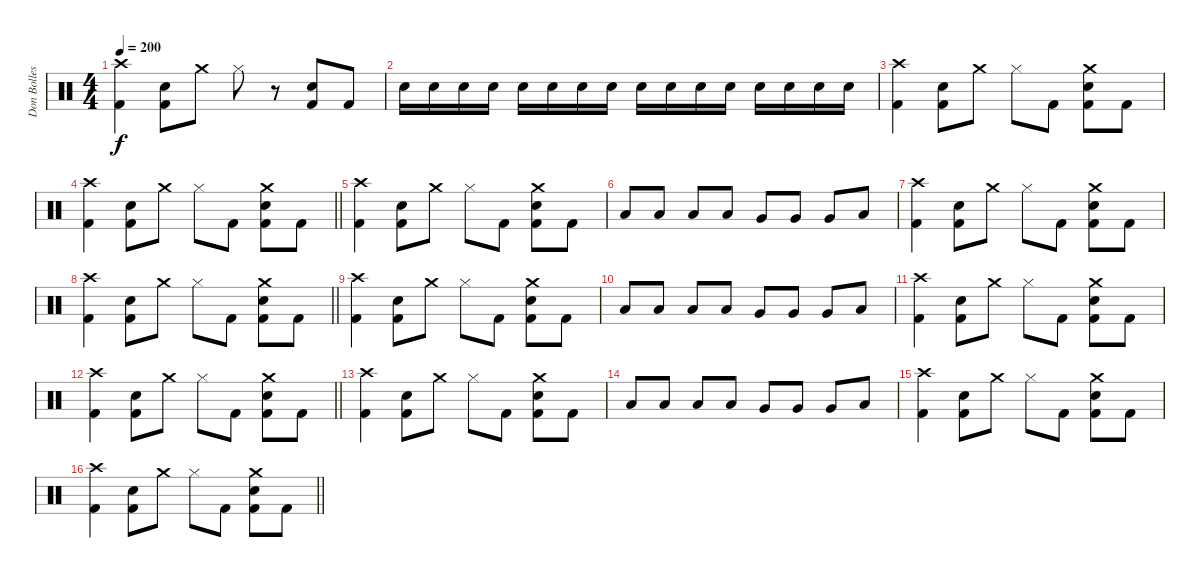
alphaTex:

\track ("Don Bolles" "Don Bolles") {instrument percussion}
\staff {score}
\articulation defaults
\ts (4 4)
\tempo 200
\clef neutral
\ks c
("Kick (hit) 2" "Crash high (hit)").4{dy f} ("Snare (hit) 2" "Kick (hit) 2").8 "Crash medium (hit)".8 "Hi-Hat (closed)".8 r.8 ("Kick (hit) 2" "Snare (hit) 2").8 "Kick (hit) 2".8 |
"Snare (hit) 2".16 "Snare (hit) 2".16 "Snare (hit) 2".16 "Snare (hit) 2".16 "Snare (hit) 2".16 "Snare (hit) 2".16 "Snare (hit) 2".16 "Snare (hit) 2".16 "Snare (hit) 2".16 "Snare (hit) 2".16 "Snare (hit) 2".16 "Snare (hit) 2".16 "Snare (hit) 2".16 "Snare (hit) 2".16 "Snare (hit) 2".16 "Snare (hit) 2".16 |
("Kick (hit) 2" "Crash high (hit)").4 ("Snare (hit) 2" "Kick (hit) 2").8 "Crash medium (hit)".8 "Hi-Hat (closed)".8 "Kick (hit) 2".8 ("Kick (hit) 2" "Snare (hit) 2" "Crash medium (hit)").8 "Kick (hit) 2".8 |
\barLineRight lightlight
("Kick (hit) 2" "Crash high (hit)").4 ("Snare (hit) 2" "Kick (hit) 2").8 "Crash medium (hit)".8 "Hi-Hat (closed)".8 "Kick (hit) 2".8 ("Kick (hit) 2" "Snare (hit) 2" "Crash medium (hit)").8 "Kick (hit) 2".8 |
("Kick (hit) 2" "Crash high (hit)").4 ("Snare (hit) 2" "Kick (hit) 2").8 "Crash medium (hit)".8 "Hi-Hat (closed)".8 "Kick (hit) 2".8 ("Kick (hit) 2" "Snare (hit) 2" "Crash medium (hit)").8 "Kick (hit) 2".8 |
"Low Floor Tom (hit)".8 "Low Floor Tom (hit)".8 "Low Floor Tom (hit)".8 "Low Floor Tom (hit)".8 "Very Low Tom (hit)".8 "Very Low Tom (hit)".8 "Very Low Tom (hit)".8 "Low Floor Tom (hit)".8 |
("Kick (hit) 2" "Crash high (hit)").4 ("Snare (hit) 2" "Kick (hit) 2").8 "Crash medium (hit)".8 "Hi-Hat (closed)".8 "Kick (hit) 2".8 ("Kick (hit) 2" "Snare (hit) 2" "Crash medium (hit)").8 "Kick (hit) 2".8 |
\barLineRight lightlight
("Kick (hit) 2" "Crash high (hit)").4 ("Snare (hit) 2" "Kick (hit) 2").8 "Crash medium (hit)".8 "Hi-Hat (closed)".8 "Kick (hit) 2".8 ("Kick (hit) 2" "Snare (hit) 2" "Crash medium (hit)").8 "Kick (hit) 2".8 |
("Kick (hit) 2" "Crash high (hit)").4 ("Snare (hit) 2" "Kick (hit) 2").8 "Crash medium (hit)".8 "Hi-Hat (closed)".8 "Kick (hit) 2".8 ("Kick (hit) 2" "Snare (hit) 2" "Crash medium (hit)").8 "Kick (hit) 2".8 |
"Low Floor Tom (hit)".8 "Low Floor Tom (hit)".8 "Low Floor Tom (hit)".8 "Low Floor Tom (hit)".8 "Very Low Tom (hit)".8 "Very Low Tom (hit)".8 "Very Low Tom (hit)".8 "Low Floor Tom (hit)".8 |
("Kick (hit) 2" "Crash high (hit)").4 ("Snare (hit) 2" "Kick (hit) 2").8 "Crash medium (hit)".8 "Hi-Hat (closed)".8 "Kick (hit) 2".8 ("Kick (hit) 2" "Snare (hit) 2" "Crash medium (hit)").8 "Kick (hit) 2".8 |
\barLineRight lightlight
("Kick (hit) 2" "Crash high (hit)").4 ("Snare (hit) 2" "Kick (hit) 2").8 "Crash medium (hit)".8 "Hi-Hat (closed)".8 "Kick (hit) 2".8 ("Kick (hit) 2" "Snare (hit) 2" "Crash medium (hit)").8 "Kick (hit) 2".8 |
("Kick (hit) 2" "Crash high (hit)").4 ("Snare (hit) 2" "Kick (hit) 2").8 "Crash medium (hit)".8 "Hi-Hat (closed)".8 "Kick (hit) 2".8 ("Kick (hit) 2" "Snare (hit) 2" "Crash medium (hit)").8 "Kick (hit) 2".8 |
"Low Floor Tom (hit)".8 "Low Floor Tom (hit)".8 "Low Floor Tom (hit)".8 "Low Floor Tom (hit)".8 "Very Low Tom (hit)".8 "Very Low Tom (hit)".8 "Very Low Tom (hit)".8 "Low Floor Tom (hit)".8 |
("Kick (hit) 2" "Crash high (hit)").4 ("Snare (hit) 2" "Kick (hit) 2").8 "Crash medium (hit)".8 "Hi-Hat (closed)".8 "Kick (hit) 2".8 ("Kick (hit) 2" "Snare (hit) 2" "Crash medium (hit)").8 "Kick (hit) 2".8 |
\barLineRight lightlight
("Kick (hit) 2" "Crash high (hit)").4 ("Snare (hit) 2" "Kick (hit) 2").8 "Crash medium (hit)".8 "Hi-Hat (closed)".8 "Kick (hit) 2".8 ("Kick (hit) 2" "Snare (hit) 2" "Crash medium (hit)").8 "Kick (hit) 2".8
